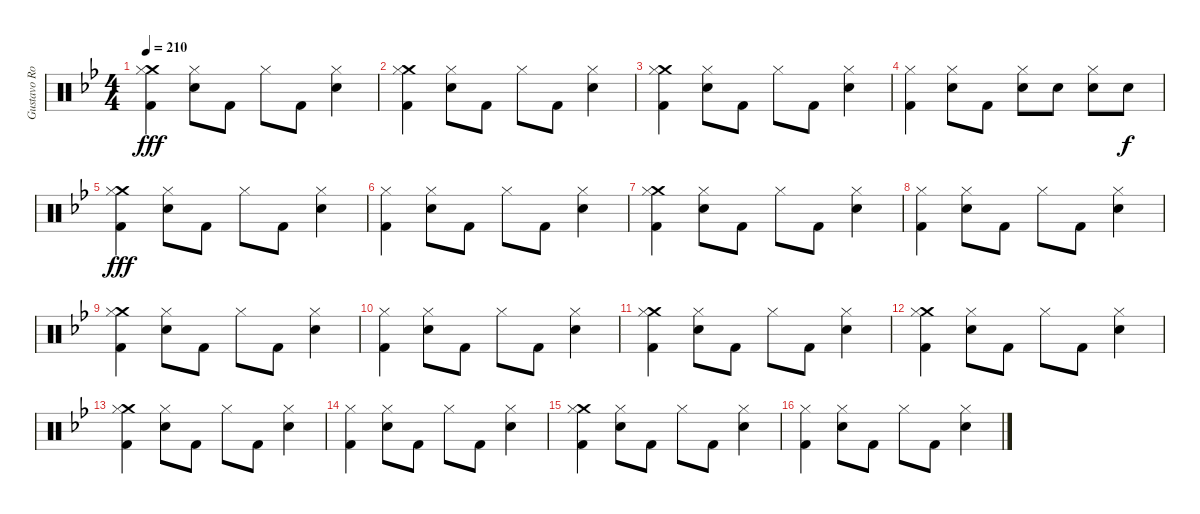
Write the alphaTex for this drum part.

\track ("Gustavo Rowek" "Gustavo Ro") {instrument percussion}
\staff {score}
\articulation defaults
\ts (4 4)
\tempo 210
\clef neutral
\ks gminor
("Crash medium (hit)" "Hi-Hat (closed)" "Kick (hit) 2").4{dy fff} ("Hi-Hat (closed)" "Snare (hit) 2").8 "Kick (hit) 2".8 "Hi-Hat (closed)".8 "Kick (hit) 2".8 ("Hi-Hat (closed)" "Snare (hit) 2").4 |
("Crash medium (hit)" "Hi-Hat (closed)" "Kick (hit) 2").4 ("Hi-Hat (closed)" "Snare (hit) 2").8 "Kick (hit) 2".8 "Hi-Hat (closed)".8 "Kick (hit) 2".8 ("Hi-Hat (closed)" "Snare (hit) 2").4 |
("Crash medium (hit)" "Hi-Hat (closed)" "Kick (hit) 2").4 ("Hi-Hat (closed)" "Snare (hit) 2").8 "Kick (hit) 2".8 "Hi-Hat (closed)".8 "Kick (hit) 2".8 ("Hi-Hat (closed)" "Snare (hit) 2").4 |
("Hi-Hat (closed)" "Kick (hit) 2").4 ("Hi-Hat (closed)" "Snare (hit) 2").8 "Kick (hit) 2".8 ("Hi-Hat (closed)" "Snare (hit) 2").8 "Snare (hit) 2".8 ("Hi-Hat (closed)" "Snare (hit) 2").8 "Snare (hit) 2".8{dy f} |
("Crash medium (hit)" "Hi-Hat (closed)" "Kick (hit) 2").4{dy fff} ("Hi-Hat (closed)" "Snare (hit) 2").8 "Kick (hit) 2".8 "Hi-Hat (closed)".8 "Kick (hit) 2".8 ("Hi-Hat (closed)" "Snare (hit) 2").4 |
("Hi-Hat (closed)" "Kick (hit) 2").4 ("Hi-Hat (closed)" "Snare (hit) 2").8 "Kick (hit) 2".8 "Hi-Hat (closed)".8 "Kick (hit) 2".8 ("Hi-Hat (closed)" "Snare (hit) 2").4 |
("Crash medium (hit)" "Hi-Hat (closed)" "Kick (hit) 2").4 ("Hi-Hat (closed)" "Snare (hit) 2").8 "Kick (hit) 2".8 "Hi-Hat (closed)".8 "Kick (hit) 2".8 ("Hi-Hat (closed)" "Snare (hit) 2").4 |
("Hi-Hat (closed)" "Kick (hit) 2").4 ("Hi-Hat (closed)" "Snare (hit) 2").8 "Kick (hit) 2".8 "Hi-Hat (closed)".8 "Kick (hit) 2".8 ("Hi-Hat (closed)" "Snare (hit) 2").4 |
("Crash medium (hit)" "Hi-Hat (closed)" "Kick (hit) 2").4 ("Hi-Hat (closed)" "Snare (hit) 2").8 "Kick (hit) 2".8 "Hi-Hat (closed)".8 "Kick (hit) 2".8 ("Hi-Hat (closed)" "Snare (hit) 2").4 |
("Hi-Hat (closed)" "Kick (hit) 2").4 ("Hi-Hat (closed)" "Snare (hit) 2").8 "Kick (hit) 2".8 "Hi-Hat (closed)".8 "Kick (hit) 2".8 ("Hi-Hat (closed)" "Snare (hit) 2").4 |
("Crash medium (hit)" "Hi-Hat (closed)" "Kick (hit) 2").4 ("Hi-Hat (closed)" "Snare (hit) 2").8 "Kick (hit) 2".8 "Hi-Hat (closed)".8 "Kick (hit) 2".8 ("Hi-Hat (closed)" "Snare (hit) 2").4 |
("Crash medium (hit)" "Hi-Hat (closed)" "Kick (hit) 2").4 ("Hi-Hat (closed)" "Snare (hit) 2").8 "Kick (hit) 2".8 "Hi-Hat (closed)".8 "Kick (hit) 2".8 ("Hi-Hat (closed)" "Snare (hit) 2").4 |
("Crash medium (hit)" "Hi-Hat (closed)" "Kick (hit) 2").4 ("Hi-Hat (closed)" "Snare (hit) 2").8 "Kick (hit) 2".8 "Hi-Hat (closed)".8 "Kick (hit) 2".8 ("Hi-Hat (closed)" "Snare (hit) 2").4 |
("Hi-Hat (closed)" "Kick (hit) 2").4 ("Hi-Hat (closed)" "Snare (hit) 2").8 "Kick (hit) 2".8 "Hi-Hat (closed)".8 "Kick (hit) 2".8 ("Hi-Hat (closed)" "Snare (hit) 2").4 |
("Crash medium (hit)" "Hi-Hat (closed)" "Kick (hit) 2").4 ("Hi-Hat (closed)" "Snare (hit) 2").8 "Kick (hit) 2".8 "Hi-Hat (closed)".8 "Kick (hit) 2".8 ("Hi-Hat (closed)" "Snare (hit) 2").4 |
("Hi-Hat (closed)" "Kick (hit) 2").4 ("Hi-Hat (closed)" "Snare (hit) 2").8 "Kick (hit) 2".8 "Hi-Hat (closed)".8 "Kick (hit) 2".8 ("Hi-Hat (closed)" "Snare (hit) 2").4
